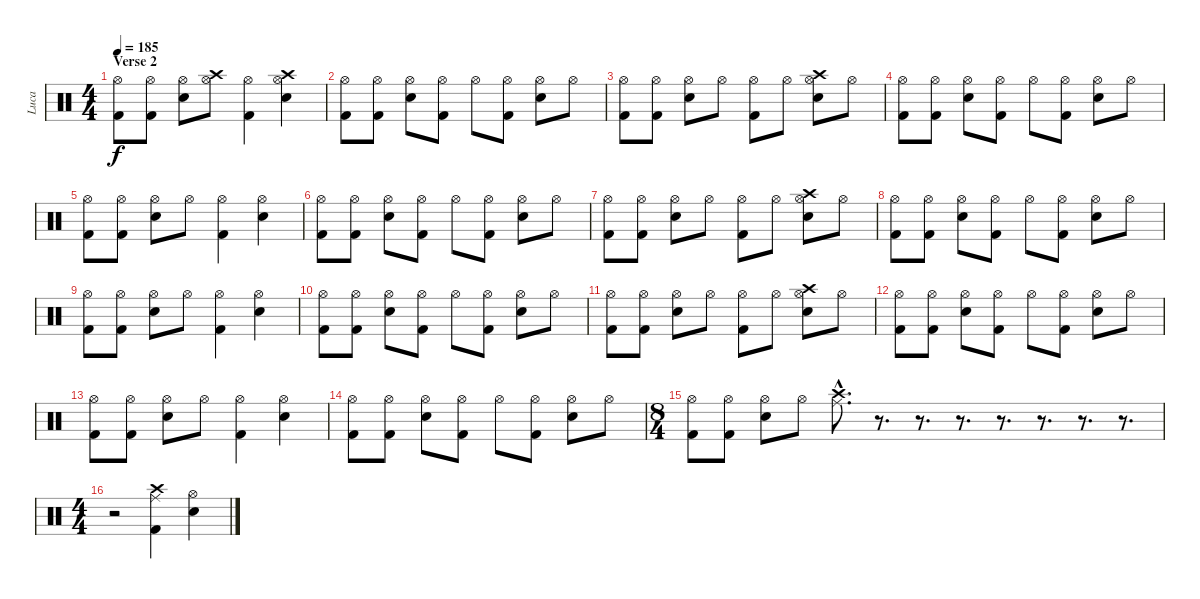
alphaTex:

\track ("Luca" "Luca") {instrument percussion}
\staff {score}
\articulation defaults
\ts (4 4)
\section ("" "Verse 2")
\tempo 185
\clef neutral
\ks c
("Hi-Hat (open)" "Kick (hit) 2").8{dy f} ("Hi-Hat (open)" "Kick (hit) 2").8 ("Hi-Hat (open)" "Snare (hit) 2").8 ("Hi-Hat (open)" "Crash high (hit)").8 ("Hi-Hat (open)" "Kick (hit) 2").4 ("Hi-Hat (open)" "Crash high (hit)" "Snare (hit) 2").4 |
("Hi-Hat (open)" "Kick (hit) 2").8 ("Hi-Hat (open)" "Kick (hit) 2").8 ("Hi-Hat (open)" "Snare (hit) 2").8 ("Hi-Hat (open)" "Kick (hit) 2").8 "Hi-Hat (open)".8 ("Hi-Hat (open)" "Kick (hit) 2").8 ("Hi-Hat (open)" "Snare (hit) 2").8 "Hi-Hat (open)".8 |
("Hi-Hat (open)" "Kick (hit) 2").8 ("Hi-Hat (open)" "Kick (hit) 2").8 ("Hi-Hat (open)" "Snare (hit) 2").8 "Hi-Hat (open)".8 ("Hi-Hat (open)" "Kick (hit) 2").8 "Hi-Hat (open)".8 ("Hi-Hat (open)" "Crash high (hit)" "Snare (hit) 2").8 "Hi-Hat (open)".8 |
("Hi-Hat (open)" "Kick (hit) 2").8 ("Hi-Hat (open)" "Kick (hit) 2").8 ("Hi-Hat (open)" "Snare (hit) 2").8 ("Hi-Hat (open)" "Kick (hit) 2").8 "Hi-Hat (open)".8 ("Hi-Hat (open)" "Kick (hit) 2").8 ("Hi-Hat (open)" "Snare (hit) 2").8 "Hi-Hat (open)".8 |
("Hi-Hat (open)" "Kick (hit) 2").8 ("Hi-Hat (open)" "Kick (hit) 2").8 ("Hi-Hat (open)" "Snare (hit) 2").8 "Hi-Hat (open)".8 ("Hi-Hat (open)" "Kick (hit) 2").4 ("Hi-Hat (open)" "Snare (hit) 2").4 |
("Hi-Hat (open)" "Kick (hit) 2").8 ("Hi-Hat (open)" "Kick (hit) 2").8 ("Hi-Hat (open)" "Snare (hit) 2").8 ("Hi-Hat (open)" "Kick (hit) 2").8 "Hi-Hat (open)".8 ("Hi-Hat (open)" "Kick (hit) 2").8 ("Hi-Hat (open)" "Snare (hit) 2").8 "Hi-Hat (open)".8 |
("Hi-Hat (open)" "Kick (hit) 2").8 ("Hi-Hat (open)" "Kick (hit) 2").8 ("Hi-Hat (open)" "Snare (hit) 2").8 "Hi-Hat (open)".8 ("Hi-Hat (open)" "Kick (hit) 2").8 "Hi-Hat (open)".8 ("Hi-Hat (open)" "Crash high (hit)" "Snare (hit) 2").8 "Hi-Hat (open)".8 |
("Hi-Hat (open)" "Kick (hit) 2").8 ("Hi-Hat (open)" "Kick (hit) 2").8 ("Hi-Hat (open)" "Snare (hit) 2").8 ("Hi-Hat (open)" "Kick (hit) 2").8 "Hi-Hat (open)".8 ("Hi-Hat (open)" "Kick (hit) 2").8 ("Hi-Hat (open)" "Snare (hit) 2").8 "Hi-Hat (open)".8 |
("Hi-Hat (open)" "Kick (hit) 2").8 ("Hi-Hat (open)" "Kick (hit) 2").8 ("Hi-Hat (open)" "Snare (hit) 2").8 "Hi-Hat (open)".8 ("Hi-Hat (open)" "Kick (hit) 2").4 ("Hi-Hat (open)" "Snare (hit) 2").4 |
("Hi-Hat (open)" "Kick (hit) 2").8 ("Hi-Hat (open)" "Kick (hit) 2").8 ("Hi-Hat (open)" "Snare (hit) 2").8 ("Hi-Hat (open)" "Kick (hit) 2").8 "Hi-Hat (open)".8 ("Hi-Hat (open)" "Kick (hit) 2").8 ("Hi-Hat (open)" "Snare (hit) 2").8 "Hi-Hat (open)".8 |
("Hi-Hat (open)" "Kick (hit) 2").8 ("Hi-Hat (open)" "Kick (hit) 2").8 ("Hi-Hat (open)" "Snare (hit) 2").8 "Hi-Hat (open)".8 ("Hi-Hat (open)" "Kick (hit) 2").8 "Hi-Hat (open)".8 ("Hi-Hat (open)" "Crash high (hit)" "Snare (hit) 2").8 "Hi-Hat (open)".8 |
("Hi-Hat (open)" "Kick (hit) 2").8 ("Hi-Hat (open)" "Kick (hit) 2").8 ("Hi-Hat (open)" "Snare (hit) 2").8 ("Hi-Hat (open)" "Kick (hit) 2").8 "Hi-Hat (open)".8 ("Hi-Hat (open)" "Kick (hit) 2").8 ("Hi-Hat (open)" "Snare (hit) 2").8 "Hi-Hat (open)".8 |
("Hi-Hat (open)" "Kick (hit) 2").8 ("Hi-Hat (open)" "Kick (hit) 2").8 ("Hi-Hat (open)" "Snare (hit) 2").8 "Hi-Hat (open)".8 ("Hi-Hat (open)" "Kick (hit) 2").4 ("Hi-Hat (open)" "Snare (hit) 2").4 |
("Hi-Hat (open)" "Kick (hit) 2").8 ("Hi-Hat (open)" "Kick (hit) 2").8 ("Hi-Hat (open)" "Snare (hit) 2").8 ("Hi-Hat (open)" "Kick (hit) 2").8 "Hi-Hat (open)".8 ("Hi-Hat (open)" "Kick (hit) 2").8 ("Hi-Hat (open)" "Snare (hit) 2").8 "Hi-Hat (open)".8 |
\ts (8 4)
("Hi-Hat (open)" "Kick (hit) 2").8 ("Hi-Hat (open)" "Kick (hit) 2").8 ("Hi-Hat (open)" "Snare (hit) 2").8 "Hi-Hat (open)".8 ("Crash high (hit)"{hac} "Ride (middle)"{hac}).8{d} r.8{d} r.8{d} r.8{d} r.8{d} r.8{d} r.8{d} r.8{d} |
\ts (4 4)
r.2 ("Crash high (hit)" "Ride (middle)" "Kick (hit) 2").4 ("Hi-Hat (open)" "Snare (hit) 2").4
